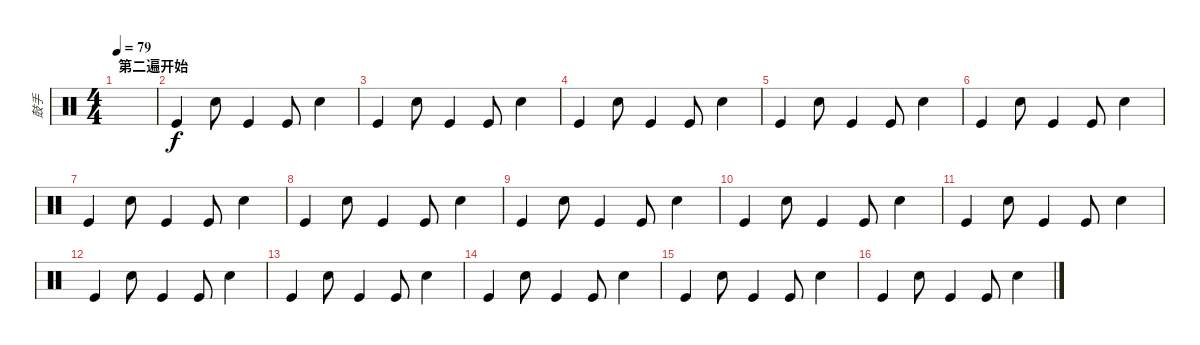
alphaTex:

\track ("鼓手" "鼓手") {instrument percussion}
\staff {score}
\articulation defaults
\ts (4 4)
\section ("" "第二遍开始")
\tempo 79
\clef neutral
\ks c
|
"Kick (hit)".4 "Snare (hit) 2".8 "Kick (hit)".4 "Kick (hit)".8 "Snare (hit) 2".4 |
"Kick (hit)".4 "Snare (hit) 2".8 "Kick (hit)".4 "Kick (hit)".8 "Snare (hit) 2".4 |
"Kick (hit)".4 "Snare (hit) 2".8 "Kick (hit)".4 "Kick (hit)".8 "Snare (hit) 2".4 |
"Kick (hit)".4 "Snare (hit) 2".8 "Kick (hit)".4 "Kick (hit)".8 "Snare (hit) 2".4 |
"Kick (hit)".4 "Snare (hit) 2".8 "Kick (hit)".4 "Kick (hit)".8 "Snare (hit) 2".4 |
"Kick (hit)".4 "Snare (hit) 2".8 "Kick (hit)".4 "Kick (hit)".8 "Snare (hit) 2".4 |
"Kick (hit)".4 "Snare (hit) 2".8 "Kick (hit)".4 "Kick (hit)".8 "Snare (hit) 2".4 |
"Kick (hit)".4 "Snare (hit) 2".8 "Kick (hit)".4 "Kick (hit)".8 "Snare (hit) 2".4 |
"Kick (hit)".4 "Electric Snare (hit)".8 "Kick (hit)".4 "Kick (hit)".8 "Electric Snare (hit)".4 |
"Kick (hit)".4 "Electric Snare (hit)".8 "Kick (hit)".4 "Kick (hit)".8 "Electric Snare (hit)".4 |
"Kick (hit)".4 "Electric Snare (hit)".8 "Kick (hit)".4 "Kick (hit)".8 "Electric Snare (hit)".4 |
"Kick (hit)".4 "Electric Snare (hit)".8 "Kick (hit)".4 "Kick (hit)".8 "Electric Snare (hit)".4 |
"Kick (hit)".4 "Electric Snare (hit)".8 "Kick (hit)".4 "Kick (hit)".8 "Electric Snare (hit)".4 |
"Kick (hit)".4 "Electric Snare (hit)".8 "Kick (hit)".4 "Kick (hit)".8 "Electric Snare (hit)".4 |
"Kick (hit)".4 "Electric Snare (hit)".8 "Kick (hit)".4 "Kick (hit)".8 "Electric Snare (hit)".4
